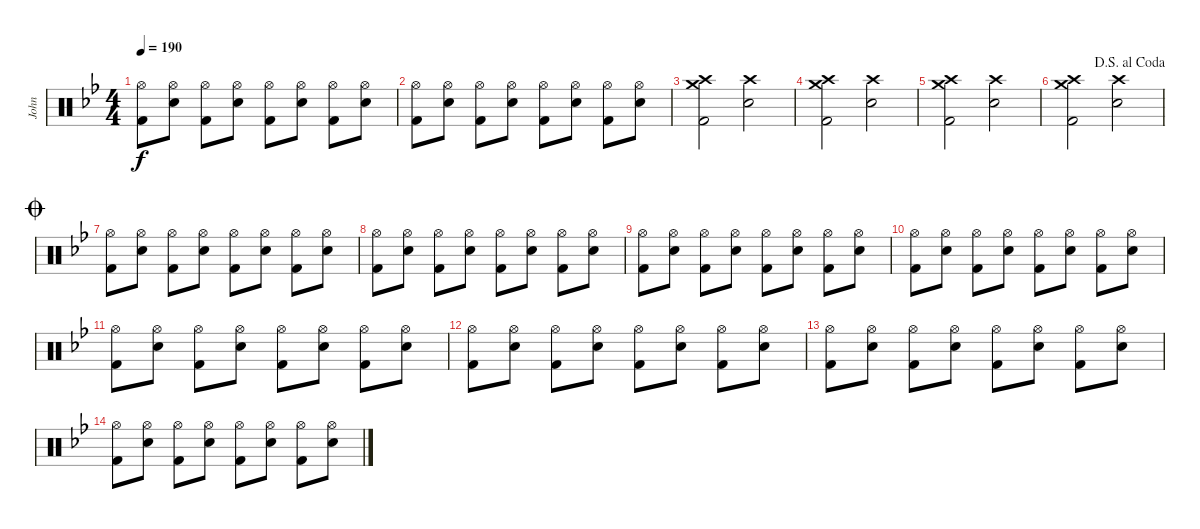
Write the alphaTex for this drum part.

\track ("John" "John") {instrument percussion}
\staff {score}
\articulation defaults
\ts (4 4)
\tempo 190
\clef neutral
\ks bb
("Hi-Hat (open)" "Kick (hit) 2").8{dy f} ("Hi-Hat (open)" "Electric Snare (hit)").8 ("Hi-Hat (open)" "Kick (hit) 2").8 ("Hi-Hat (open)" "Electric Snare (hit)").8 ("Hi-Hat (open)" "Kick (hit) 2").8 ("Hi-Hat (open)" "Electric Snare (hit)").8 ("Hi-Hat (open)" "Kick (hit) 2").8 ("Hi-Hat (open)" "Electric Snare (hit)").8 |
("Hi-Hat (open)" "Kick (hit) 2").8 ("Hi-Hat (open)" "Electric Snare (hit)").8 ("Hi-Hat (open)" "Kick (hit) 2").8 ("Hi-Hat (open)" "Electric Snare (hit)").8 ("Hi-Hat (open)" "Kick (hit) 2").8 ("Hi-Hat (open)" "Electric Snare (hit)").8 ("Hi-Hat (open)" "Kick (hit) 2").8 ("Hi-Hat (open)" "Electric Snare (hit)").8 |
("Crash medium (hit)" "Crash high (hit)" "Kick (hit) 2").2 ("Crash high (hit)" "Electric Snare (hit)").2 |
("Crash medium (hit)" "Crash high (hit)" "Kick (hit) 2").2 ("Crash high (hit)" "Electric Snare (hit)").2 |
("Crash medium (hit)" "Crash high (hit)" "Kick (hit) 2").2 ("Crash high (hit)" "Electric Snare (hit)").2 |
\jump dalsegnoalcoda
("Crash medium (hit)" "Crash high (hit)" "Kick (hit) 2").2 ("Crash high (hit)" "Electric Snare (hit)").2 |
\jump coda
("Hi-Hat (open)" "Kick (hit) 2").8 ("Hi-Hat (open)" "Electric Snare (hit)").8 ("Hi-Hat (open)" "Kick (hit) 2").8 ("Hi-Hat (open)" "Electric Snare (hit)").8 ("Hi-Hat (open)" "Kick (hit) 2").8 ("Hi-Hat (open)" "Electric Snare (hit)").8 ("Hi-Hat (open)" "Kick (hit) 2").8 ("Hi-Hat (open)" "Electric Snare (hit)").8 |
("Hi-Hat (open)" "Kick (hit) 2").8 ("Hi-Hat (open)" "Electric Snare (hit)").8 ("Hi-Hat (open)" "Kick (hit) 2").8 ("Hi-Hat (open)" "Electric Snare (hit)").8 ("Hi-Hat (open)" "Kick (hit) 2").8 ("Hi-Hat (open)" "Electric Snare (hit)").8 ("Hi-Hat (open)" "Kick (hit) 2").8 ("Hi-Hat (open)" "Electric Snare (hit)").8 |
("Hi-Hat (open)" "Kick (hit) 2").8 ("Hi-Hat (open)" "Electric Snare (hit)").8 ("Hi-Hat (open)" "Kick (hit) 2").8 ("Hi-Hat (open)" "Electric Snare (hit)").8 ("Hi-Hat (open)" "Kick (hit) 2").8 ("Hi-Hat (open)" "Electric Snare (hit)").8 ("Hi-Hat (open)" "Kick (hit) 2").8 ("Hi-Hat (open)" "Electric Snare (hit)").8 |
("Hi-Hat (open)" "Kick (hit) 2").8 ("Hi-Hat (open)" "Electric Snare (hit)").8 ("Hi-Hat (open)" "Kick (hit) 2").8 ("Hi-Hat (open)" "Electric Snare (hit)").8 ("Hi-Hat (open)" "Kick (hit) 2").8 ("Hi-Hat (open)" "Electric Snare (hit)").8 ("Hi-Hat (open)" "Kick (hit) 2").8 ("Hi-Hat (open)" "Electric Snare (hit)").8 |
("Hi-Hat (open)" "Kick (hit) 2").8 ("Hi-Hat (open)" "Electric Snare (hit)").8 ("Hi-Hat (open)" "Kick (hit) 2").8 ("Hi-Hat (open)" "Electric Snare (hit)").8 ("Hi-Hat (open)" "Kick (hit) 2").8 ("Hi-Hat (open)" "Electric Snare (hit)").8 ("Hi-Hat (open)" "Kick (hit) 2").8 ("Hi-Hat (open)" "Electric Snare (hit)").8 |
("Hi-Hat (open)" "Kick (hit) 2").8 ("Hi-Hat (open)" "Electric Snare (hit)").8 ("Hi-Hat (open)" "Kick (hit) 2").8 ("Hi-Hat (open)" "Electric Snare (hit)").8 ("Hi-Hat (open)" "Kick (hit) 2").8 ("Hi-Hat (open)" "Electric Snare (hit)").8 ("Hi-Hat (open)" "Kick (hit) 2").8 ("Hi-Hat (open)" "Electric Snare (hit)").8 |
("Hi-Hat (open)" "Kick (hit) 2").8 ("Hi-Hat (open)" "Electric Snare (hit)").8 ("Hi-Hat (open)" "Kick (hit) 2").8 ("Hi-Hat (open)" "Electric Snare (hit)").8 ("Hi-Hat (open)" "Kick (hit) 2").8 ("Hi-Hat (open)" "Electric Snare (hit)").8 ("Hi-Hat (open)" "Kick (hit) 2").8 ("Hi-Hat (open)" "Electric Snare (hit)").8 |
("Hi-Hat (open)" "Kick (hit) 2").8 ("Hi-Hat (open)" "Electric Snare (hit)").8 ("Hi-Hat (open)" "Kick (hit) 2").8 ("Hi-Hat (open)" "Electric Snare (hit)").8 ("Hi-Hat (open)" "Kick (hit) 2").8 ("Hi-Hat (open)" "Electric Snare (hit)").8 ("Hi-Hat (open)" "Kick (hit) 2").8 ("Hi-Hat (open)" "Electric Snare (hit)").8
